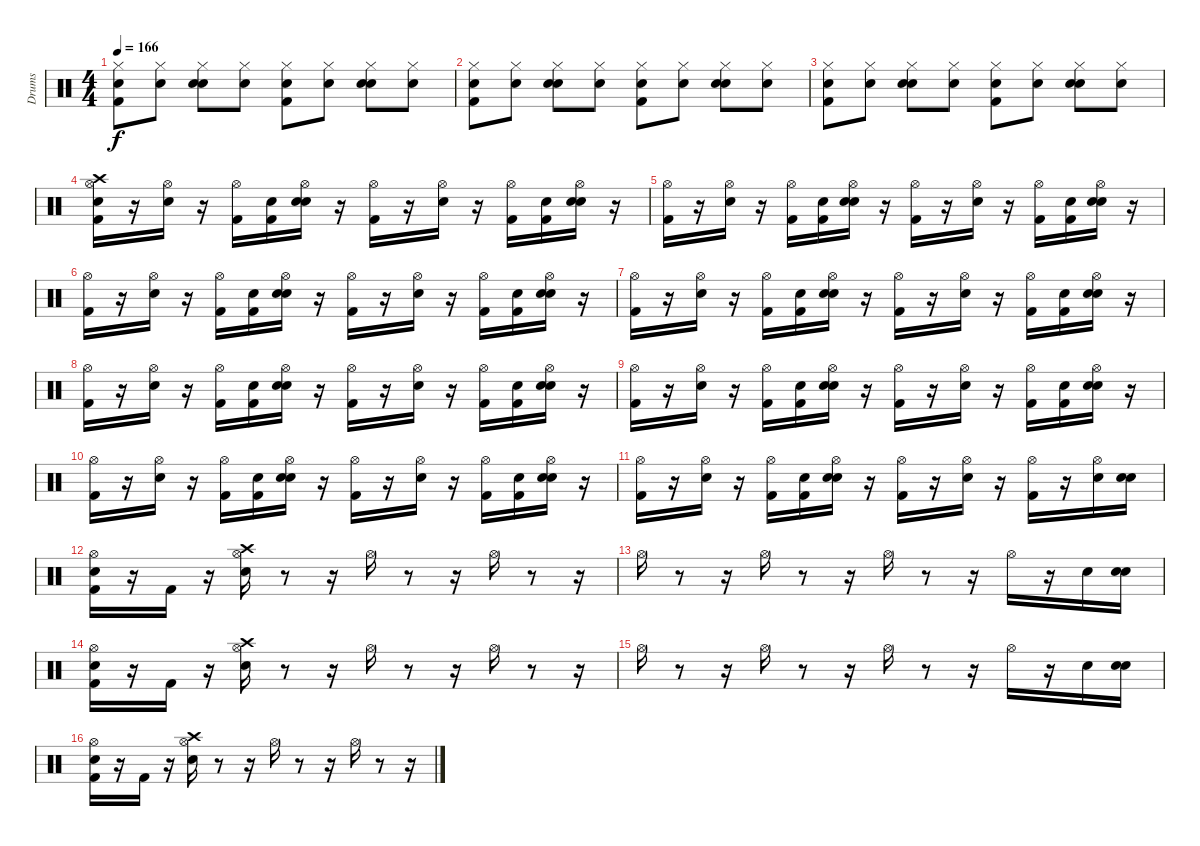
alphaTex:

\track ("Drums" "Drums") {instrument percussion}
\staff {score}
\articulation defaults
\ts (4 4)
\tempo 166
\clef neutral
\ks c
("Snare (hit)" "Hi-Hat (closed)" "Kick (hit) 2").8{dy f} ("Snare (hit)" "Hi-Hat (closed)").8 ("Snare (hit)" "Hi-Hat (closed)" "Electric Snare (hit)").8 ("Snare (hit)" "Hi-Hat (closed)").8 ("Snare (hit)" "Hi-Hat (closed)" "Kick (hit) 2").8 ("Snare (hit)" "Hi-Hat (closed)").8 ("Snare (hit)" "Hi-Hat (closed)" "Electric Snare (hit)").8 ("Snare (hit)" "Hi-Hat (closed)").8 |
("Snare (hit)" "Hi-Hat (closed)" "Kick (hit) 2").8 ("Snare (hit)" "Hi-Hat (closed)").8 ("Snare (hit)" "Hi-Hat (closed)" "Electric Snare (hit)").8 ("Snare (hit)" "Hi-Hat (closed)").8 ("Snare (hit)" "Hi-Hat (closed)" "Kick (hit) 2").8 ("Snare (hit)" "Hi-Hat (closed)").8 ("Snare (hit)" "Hi-Hat (closed)" "Electric Snare (hit)").8 ("Snare (hit)" "Hi-Hat (closed)").8 |
("Snare (hit)" "Hi-Hat (closed)" "Kick (hit) 2").8 ("Snare (hit)" "Hi-Hat (closed)").8 ("Snare (hit)" "Hi-Hat (closed)" "Electric Snare (hit)").8 ("Snare (hit)" "Hi-Hat (closed)").8 ("Snare (hit)" "Hi-Hat (closed)" "Kick (hit) 2").8 ("Snare (hit)" "Hi-Hat (closed)").8 ("Snare (hit)" "Hi-Hat (closed)" "Electric Snare (hit)").8 ("Snare (hit)" "Hi-Hat (closed)").8 |
("Snare (hit)" "Crash high (hit)" "Hi-Hat (open)" "Kick (hit) 2").16 r.16 ("Hi-Hat (open)" "Electric Snare (hit)").16 r.16 ("Hi-Hat (open)" "Kick (hit) 2").16 ("Snare (hit)" "Kick (hit) 2").16 ("Snare (hit)" "Hi-Hat (open)" "Electric Snare (hit)").16 r.16 ("Kick (hit) 2" "Hi-Hat (open)").16 r.16 ("Hi-Hat (open)" "Electric Snare (hit)").16 r.16 ("Hi-Hat (open)" "Kick (hit) 2").16 ("Snare (hit)" "Kick (hit) 2").16 ("Snare (hit)" "Hi-Hat (open)" "Electric Snare (hit)").16 r.16 |
("Hi-Hat (open)" "Kick (hit) 2").16 r.16 ("Hi-Hat (open)" "Electric Snare (hit)").16 r.16 ("Hi-Hat (open)" "Kick (hit) 2").16 ("Snare (hit)" "Kick (hit) 2").16 ("Snare (hit)" "Hi-Hat (open)" "Electric Snare (hit)").16 r.16 ("Kick (hit) 2" "Hi-Hat (open)").16 r.16 ("Hi-Hat (open)" "Electric Snare (hit)").16 r.16 ("Hi-Hat (open)" "Kick (hit) 2").16 ("Snare (hit)" "Kick (hit) 2").16 ("Snare (hit)" "Hi-Hat (open)" "Electric Snare (hit)").16 r.16 |
("Hi-Hat (open)" "Kick (hit) 2").16 r.16 ("Hi-Hat (open)" "Electric Snare (hit)").16 r.16 ("Hi-Hat (open)" "Kick (hit) 2").16 ("Snare (hit)" "Kick (hit) 2").16 ("Snare (hit)" "Hi-Hat (open)" "Electric Snare (hit)").16 r.16 ("Kick (hit) 2" "Hi-Hat (open)").16 r.16 ("Hi-Hat (open)" "Electric Snare (hit)").16 r.16 ("Hi-Hat (open)" "Kick (hit) 2").16 ("Snare (hit)" "Kick (hit) 2").16 ("Snare (hit)" "Hi-Hat (open)" "Electric Snare (hit)").16 r.16 |
("Hi-Hat (open)" "Kick (hit) 2").16 r.16 ("Hi-Hat (open)" "Electric Snare (hit)").16 r.16 ("Hi-Hat (open)" "Kick (hit) 2").16 ("Snare (hit)" "Kick (hit) 2").16 ("Snare (hit)" "Hi-Hat (open)" "Electric Snare (hit)").16 r.16 ("Kick (hit) 2" "Hi-Hat (open)").16 r.16 ("Hi-Hat (open)" "Electric Snare (hit)").16 r.16 ("Hi-Hat (open)" "Kick (hit) 2").16 ("Snare (hit)" "Kick (hit) 2").16 ("Snare (hit)" "Hi-Hat (open)" "Electric Snare (hit)").16 r.16 |
("Hi-Hat (open)" "Kick (hit) 2").16 r.16 ("Hi-Hat (open)" "Electric Snare (hit)").16 r.16 ("Hi-Hat (open)" "Kick (hit) 2").16 ("Snare (hit)" "Kick (hit) 2").16 ("Snare (hit)" "Hi-Hat (open)" "Electric Snare (hit)").16 r.16 ("Kick (hit) 2" "Hi-Hat (open)").16 r.16 ("Hi-Hat (open)" "Electric Snare (hit)").16 r.16 ("Hi-Hat (open)" "Kick (hit) 2").16 ("Snare (hit)" "Kick (hit) 2").16 ("Snare (hit)" "Hi-Hat (open)" "Electric Snare (hit)").16 r.16 |
("Hi-Hat (open)" "Kick (hit) 2").16 r.16 ("Hi-Hat (open)" "Electric Snare (hit)").16 r.16 ("Hi-Hat (open)" "Kick (hit) 2").16 ("Snare (hit)" "Kick (hit) 2").16 ("Snare (hit)" "Hi-Hat (open)" "Electric Snare (hit)").16 r.16 ("Kick (hit) 2" "Hi-Hat (open)").16 r.16 ("Hi-Hat (open)" "Electric Snare (hit)").16 r.16 ("Hi-Hat (open)" "Kick (hit) 2").16 ("Snare (hit)" "Kick (hit) 2").16 ("Snare (hit)" "Hi-Hat (open)" "Electric Snare (hit)").16 r.16 |
("Hi-Hat (open)" "Kick (hit) 2").16 r.16 ("Hi-Hat (open)" "Electric Snare (hit)").16 r.16 ("Hi-Hat (open)" "Kick (hit) 2").16 ("Snare (hit)" "Kick (hit) 2").16 ("Snare (hit)" "Hi-Hat (open)" "Electric Snare (hit)").16 r.16 ("Kick (hit) 2" "Hi-Hat (open)").16 r.16 ("Hi-Hat (open)" "Electric Snare (hit)").16 r.16 ("Hi-Hat (open)" "Kick (hit) 2").16 ("Snare (hit)" "Kick (hit) 2").16 ("Snare (hit)" "Hi-Hat (open)" "Electric Snare (hit)").16 r.16 |
("Hi-Hat (open)" "Kick (hit) 2").16 r.16 ("Hi-Hat (open)" "Electric Snare (hit)").16 r.16 ("Hi-Hat (open)" "Kick (hit) 2").16 ("Snare (hit)" "Kick (hit) 2").16 ("Snare (hit)" "Hi-Hat (open)" "Electric Snare (hit)").16 r.16 ("Kick (hit) 2" "Hi-Hat (open)").16 r.16 ("Hi-Hat (open)" "Electric Snare (hit)").16 r.16 ("Hi-Hat (open)" "Kick (hit) 2").16 r.16 ("Hi-Hat (open)" "Electric Snare (hit)").16 ("Snare (hit)" "Electric Snare (hit)").16 |
("Snare (hit)" "Hi-Hat (open)" "Kick (hit) 2").16 r.16 "Kick (hit) 2".16 r.16 ("Hi-Hat (open)" "Crash high (hit)" "Electric Snare (hit)").16 r.8 r.16 "Hi-Hat (open)".16 r.8 r.16 "Hi-Hat (open)".16 r.8 r.16 |
"Hi-Hat (open)".16 r.8 r.16 "Hi-Hat (open)".16 r.8 r.16 "Hi-Hat (open)".16 r.8 r.16 "Hi-Hat (open)".16 r.16 "Electric Snare (hit)".16 ("Snare (hit)" "Electric Snare (hit)").16 |
("Snare (hit)" "Hi-Hat (open)" "Kick (hit) 2").16 r.16 "Kick (hit) 2".16 r.16 ("Hi-Hat (open)" "Crash high (hit)" "Electric Snare (hit)").16 r.8 r.16 "Hi-Hat (open)".16 r.8 r.16 "Hi-Hat (open)".16 r.8 r.16 |
"Hi-Hat (open)".16 r.8 r.16 "Hi-Hat (open)".16 r.8 r.16 "Hi-Hat (open)".16 r.8 r.16 "Hi-Hat (open)".16 r.16 "Electric Snare (hit)".16 ("Snare (hit)" "Electric Snare (hit)").16 |
("Snare (hit)" "Hi-Hat (open)" "Kick (hit) 2").16 r.16 "Kick (hit) 2".16 r.16 ("Hi-Hat (open)" "Crash high (hit)" "Electric Snare (hit)").16 r.8 r.16 "Hi-Hat (open)".16 r.8 r.16 "Hi-Hat (open)".16 r.8 r.16
